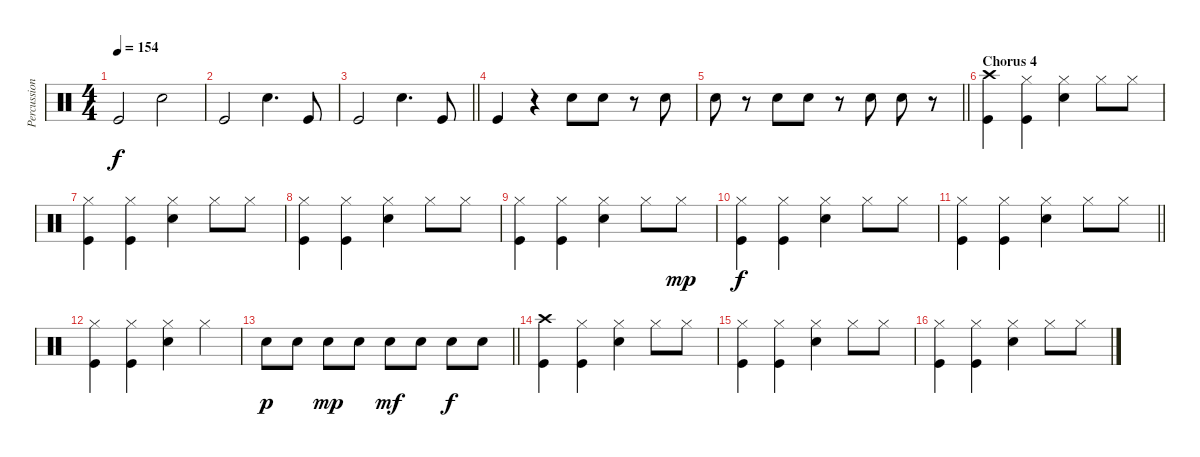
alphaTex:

\track ("Percussion" "Percussion") {instrument percussion}
\staff {score}
\articulation defaults
\ts (4 4)
\tempo 154
\clef neutral
\ks c "Kick (hit)".2{dy f} "Snare (hit) 2".2
|
"Kick (hit)".2 "Snare (hit) 2".4{d} "Kick (hit)".8 |
\barLineRight lightlight "Kick (hit)".2 "Snare (hit) 2".4{d} "Kick (hit)".8
|
"Kick (hit)".4 r.4 "Snare (hit) 2".8 "Snare (hit) 2".8 r.8 "Electric Snare (hit)".8 |
\barLineRight lightlight "Electric Snare (hit)".8
r.8 "Snare (hit) 2".8 "Snare (hit) 2".8 r.8 "Electric Snare (hit)".8 "Electric Snare (hit)".8 r.8 |
\section ("" "Chorus 4")
("Crash high (hit)" "Kick (hit)").4 ("Hi-Hat (closed)" "Kick (hit)").4 ("Hi-Hat (closed)" "Snare (hit) 2").4 "Hi-Hat (closed)".8 "Hi-Hat (closed)".8 |
("Hi-Hat (closed)" "Kick (hit)").4 ("Hi-Hat (closed)" "Kick (hit)").4 ("Hi-Hat (closed)" "Snare (hit) 2").4 "Hi-Hat (closed)".8 "Hi-Hat (closed)".8 |
("Hi-Hat (closed)" "Kick (hit)").4 ("Hi-Hat (closed)" "Kick (hit)").4 ("Hi-Hat (closed)" "Snare (hit) 2").4 "Hi-Hat (closed)".8 "Hi-Hat (closed)".8 |
("Hi-Hat (closed)" "Kick (hit)").4 ("Hi-Hat (closed)" "Kick (hit)").4 ("Hi-Hat (closed)" "Snare (hit) 2").4 "Hi-Hat (closed)".8 "Hi-Hat (closed)".8{dy mp} |
("Hi-Hat (closed)" "Kick (hit)").4{dy f} ("Hi-Hat (closed)" "Kick (hit)").4 ("Hi-Hat (closed)" "Snare (hit) 2").4 "Hi-Hat (closed)".8 "Hi-Hat (closed)".8 |
\barLineRight lightlight
("Hi-Hat (closed)" "Kick (hit)").4 ("Hi-Hat (closed)" "Kick (hit)").4 ("Hi-Hat (closed)" "Snare (hit) 2").4 "Hi-Hat (closed)".8 "Hi-Hat (closed)".8 |
("Hi-Hat (closed)" "Kick (hit)").4 ("Hi-Hat (closed)" "Kick (hit)").4 ("Hi-Hat (closed)" "Snare (hit) 2").4 "Hi-Hat (closed)".4 |
\barLineRight lightlight "Snare (hit) 2".8{dy p} "Snare (hit) 2".8 "Snare (hit) 2".8{dy mp} "Electric Snare (hit)".8 "Electric Snare (hit)".8{dy mf} "Electric Snare (hit)".8 "Snare (hit) 2".8{dy f} "Snare (hit) 2".8
|
("Crash high (hit)" "Kick (hit)").4 ("Hi-Hat (closed)" "Kick (hit)").4 ("Hi-Hat (closed)" "Snare (hit) 2").4 "Hi-Hat (closed)".8 "Hi-Hat (closed)".8 |
("Hi-Hat (closed)" "Kick (hit)").4 ("Hi-Hat (closed)" "Kick (hit)").4 ("Hi-Hat (closed)" "Snare (hit) 2").4 "Hi-Hat (closed)".8 "Hi-Hat (closed)".8 |
("Hi-Hat (closed)" "Kick (hit)").4 ("Hi-Hat (closed)" "Kick (hit)").4 ("Hi-Hat (closed)" "Snare (hit) 2").4 "Hi-Hat (closed)".8 "Hi-Hat (closed)".8
